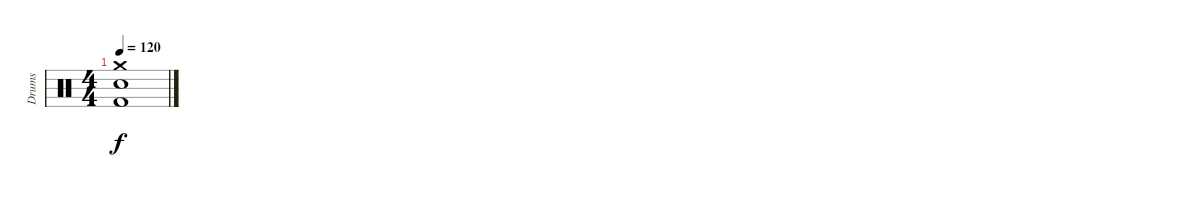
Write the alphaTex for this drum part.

\track ("Drums" "Drums") {instrument percussion}
\staff {score}
\articulation defaults
\ts (4 4)
\tempo 120
\clef neutral
\ks c
("Crash medium (hit)" "Snare (hit) 2" "Kick (hit) 2").1{dy f}
